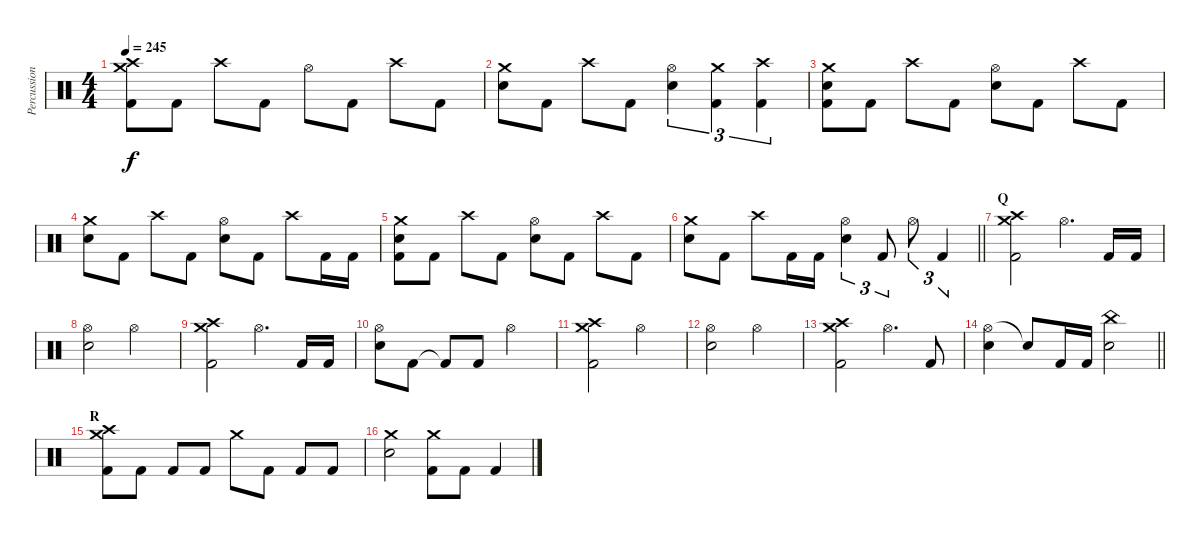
\track ("Percussion" "Percussion") {instrument percussion}
\staff {score}
\articulation defaults
\ts (4 4)
\tempo 245
\clef neutral
\ks c
("Crash medium (hit)" "Crash high (hit)" "Kick (hit) 2").8{dy f} "Kick (hit) 2".8 "Crash high (hit)".8 "Kick (hit) 2".8 "Hi-Hat (open)".8 "Kick (hit) 2".8 "Crash high (hit)".8 "Kick (hit) 2".8 |
("Crash medium (hit)" "Electric Snare (hit)").8 "Kick (hit) 2".8 "Crash high (hit)".8 "Kick (hit) 2".8 ("Hi-Hat (open)" "Electric Snare (hit)").4{tu (3 2)} ("Crash medium (hit)" "Kick (hit) 2").4{tu (3 2)} ("Crash high (hit)" "Kick (hit) 2").4{tu (3 2)} |
("Crash medium (hit)" "Electric Snare (hit)" "Kick (hit) 2").8 "Kick (hit) 2".8 "Crash high (hit)".8 "Kick (hit) 2".8 ("Hi-Hat (open)" "Electric Snare (hit)").8 "Kick (hit) 2".8 "Crash high (hit)".8 "Kick (hit) 2".8 |
("Crash medium (hit)" "Electric Snare (hit)").8 "Kick (hit) 2".8 "Crash high (hit)".8 "Kick (hit) 2".8 ("Hi-Hat (open)" "Electric Snare (hit)").8 "Kick (hit) 2".8 "Crash high (hit)".8 "Kick (hit) 2".16 "Kick (hit) 2".16 |
("Crash medium (hit)" "Electric Snare (hit)" "Kick (hit) 2").8 "Kick (hit) 2".8 "Crash high (hit)".8 "Kick (hit) 2".8 ("Hi-Hat (open)" "Electric Snare (hit)").8 "Kick (hit) 2".8 "Crash high (hit)".8 "Kick (hit) 2".8 |
\barLineRight lightlight
("Crash medium (hit)" "Electric Snare (hit)").8 "Kick (hit) 2".8 "Crash high (hit)".8 "Kick (hit) 2".16 "Kick (hit) 2".16 ("Hi-Hat (open)" "Electric Snare (hit)").4{tu (3 2)} "Kick (hit) 2".8{tu (3 2)} "Hi-Hat (open)".8{tu (3 2)} "Kick (hit) 2".4{tu (3 2)} |
\section ("" "Q")
("Crash medium (hit)" "Crash high (hit)" "Kick (hit) 2").2 "Hi-Hat (open)".4{d} "Kick (hit) 2".16 "Kick (hit) 2".16 |
("Hi-Hat (open)" "Electric Snare (hit)").2 "Hi-Hat (open)".2 |
("Crash medium (hit)" "Crash high (hit)" "Kick (hit) 2").2 "Hi-Hat (open)".4{d} "Kick (hit) 2".16 "Kick (hit) 2".16 |
("Hi-Hat (open)" "Electric Snare (hit)").8 "Kick (hit) 2".8 "Kick (hit) 2"{t}.8 "Kick (hit) 2".8 "Hi-Hat (open)".2 |
("Crash medium (hit)" "Crash high (hit)" "Kick (hit) 2").2 "Hi-Hat (open)".2 |
("Hi-Hat (open)" "Electric Snare (hit)").2 "Hi-Hat (open)".2 |
("Crash medium (hit)" "Crash high (hit)" "Kick (hit) 2").2 "Hi-Hat (open)".4{d} "Kick (hit) 2".8 |
\barLineRight lightlight
("Hi-Hat (open)" "Electric Snare (hit)").4 "Electric Snare (hit)"{t}.8 "Kick (hit) 2".16 "Kick (hit) 2".16 ("China (hit)" "Electric Snare (hit)").2 |
\section ("" "R")
("Crash medium (hit)" "Crash high (hit)" "Kick (hit) 2").8 "Kick (hit) 2".8 "Kick (hit) 2".8 "Kick (hit) 2".8 "Crash medium (hit)".8 "Kick (hit) 2".8 "Kick (hit) 2".8 "Kick (hit) 2".8 |
("Crash medium (hit)" "Electric Snare (hit)").2 ("Crash medium (hit)" "Kick (hit) 2").8 "Kick (hit) 2".8 "Kick (hit) 2".4
